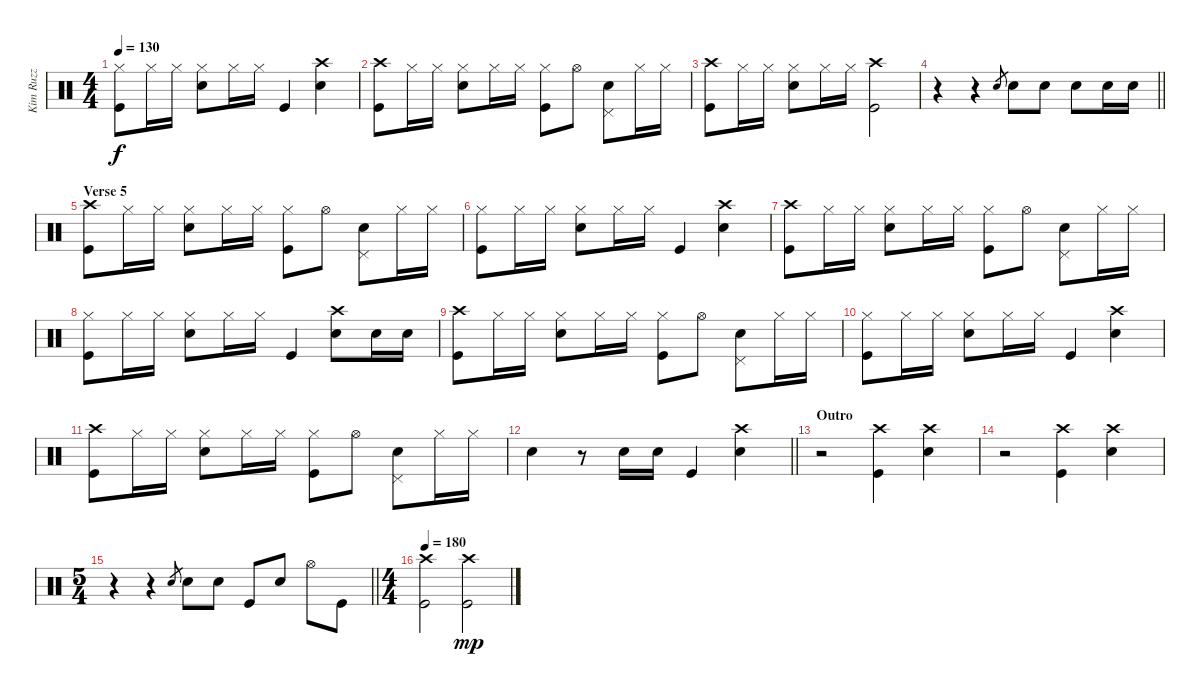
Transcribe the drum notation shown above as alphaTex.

\track ("Kim Ruzz" "Kim Ruzz") {instrument percussion}
\staff {score}
\articulation defaults
\ts (4 4)
\tempo 130
\clef neutral
\ks c
("Hi-Hat (closed)" "Kick (hit)").8{dy f} "Hi-Hat (closed)".16 "Hi-Hat (closed)".16 ("Hi-Hat (closed)" "Snare (hit) 2").8 "Hi-Hat (closed)".16 "Hi-Hat (closed)".16 "Kick (hit)".4 ("Crash high (hit)" "Snare (hit) 2").4 |
("Crash high (hit)" "Kick (hit)").8 "Hi-Hat (closed)".16 "Hi-Hat (closed)".16 ("Hi-Hat (closed)" "Snare (hit) 2").8 "Hi-Hat (closed)".16 "Hi-Hat (closed)".16 ("Hi-Hat (closed)" "Kick (hit)").8 "Hi-Hat (open)".8 ("Pedal Hi-Hat (hit)" "Snare (hit) 2").8 "Hi-Hat (closed)".16 "Hi-Hat (closed)".16 |
("Crash high (hit)" "Kick (hit)").8 "Hi-Hat (closed)".16 "Hi-Hat (closed)".16 ("Hi-Hat (closed)" "Snare (hit) 2").8 "Hi-Hat (closed)".16 "Hi-Hat (closed)".16 ("Crash high (hit)" "Kick (hit)").2 |
\barLineRight lightlight
r.4 r.4 "Snare (hit) 2".8{gr} "Snare (hit) 2".8 "Snare (hit) 2".8 "Snare (hit) 2".8 "Snare (hit) 2".16 "Snare (hit) 2".16 |
\section ("" "Verse 5")
("Crash high (hit)" "Kick (hit)").8 "Hi-Hat (closed)".16 "Hi-Hat (closed)".16 ("Hi-Hat (closed)" "Snare (hit) 2").8 "Hi-Hat (closed)".16 "Hi-Hat (closed)".16 ("Hi-Hat (closed)" "Kick (hit)").8 "Hi-Hat (open)".8 ("Pedal Hi-Hat (hit)" "Snare (hit) 2").8 "Hi-Hat (closed)".16 "Hi-Hat (closed)".16 |
("Hi-Hat (closed)" "Kick (hit)").8 "Hi-Hat (closed)".16 "Hi-Hat (closed)".16 ("Hi-Hat (closed)" "Snare (hit) 2").8 "Hi-Hat (closed)".16 "Hi-Hat (closed)".16 "Kick (hit)".4 ("Crash high (hit)" "Snare (hit) 2").4 |
("Crash high (hit)" "Kick (hit)").8 "Hi-Hat (closed)".16 "Hi-Hat (closed)".16 ("Hi-Hat (closed)" "Snare (hit) 2").8 "Hi-Hat (closed)".16 "Hi-Hat (closed)".16 ("Hi-Hat (closed)" "Kick (hit)").8 "Hi-Hat (open)".8 ("Pedal Hi-Hat (hit)" "Snare (hit) 2").8 "Hi-Hat (closed)".16 "Hi-Hat (closed)".16 |
("Hi-Hat (closed)" "Kick (hit)").8 "Hi-Hat (closed)".16 "Hi-Hat (closed)".16 ("Hi-Hat (closed)" "Snare (hit) 2").8 "Hi-Hat (closed)".16 "Hi-Hat (closed)".16 "Kick (hit)".4 ("Crash high (hit)" "Snare (hit) 2").8 "Snare (hit) 2".16 "Snare (hit) 2".16 |
("Crash high (hit)" "Kick (hit)").8 "Hi-Hat (closed)".16 "Hi-Hat (closed)".16 ("Hi-Hat (closed)" "Snare (hit) 2").8 "Hi-Hat (closed)".16 "Hi-Hat (closed)".16 ("Hi-Hat (closed)" "Kick (hit)").8 "Hi-Hat (open)".8 ("Pedal Hi-Hat (hit)" "Snare (hit) 2").8 "Hi-Hat (closed)".16 "Hi-Hat (closed)".16 |
("Hi-Hat (closed)" "Kick (hit)").8 "Hi-Hat (closed)".16 "Hi-Hat (closed)".16 ("Hi-Hat (closed)" "Snare (hit) 2").8 "Hi-Hat (closed)".16 "Hi-Hat (closed)".16 "Kick (hit)".4 ("Crash high (hit)" "Snare (hit) 2").4 |
("Crash high (hit)" "Kick (hit)").8 "Hi-Hat (closed)".16 "Hi-Hat (closed)".16 ("Hi-Hat (closed)" "Snare (hit) 2").8 "Hi-Hat (closed)".16 "Hi-Hat (closed)".16 ("Hi-Hat (closed)" "Kick (hit)").8 "Hi-Hat (open)".8 ("Pedal Hi-Hat (hit)" "Snare (hit) 2").8 "Hi-Hat (closed)".16 "Hi-Hat (closed)".16 |
\barLineRight lightlight "Snare (hit) 2".4
r.8 "Snare (hit) 2".16 "Snare (hit) 2".16 "Kick (hit)".4 ("Crash high (hit)" "Snare (hit) 2").4 |
\section ("" "Outro")
r.2 ("Crash high (hit)" "Kick (hit)").4 ("Crash high (hit)" "Snare (hit) 2").4 |
r.2 ("Crash high (hit)" "Kick (hit)").4 ("Crash high (hit)" "Snare (hit) 2").4 |
\ts (5 4)
\barLineRight lightlight
r.4 r.4 "Snare (hit) 2".8{gr} "Snare (hit) 2".8 "Snare (hit) 2".8 "Kick (hit)".8 "Snare (hit) 2".8 "Hi-Hat (open)".8 "Kick (hit)".8 |
\ts (4 4)
\tempo 180
("Crash high (hit)" "Kick (hit)").2 ("Crash high (hit)" "Kick (hit)").2{dy mp}
